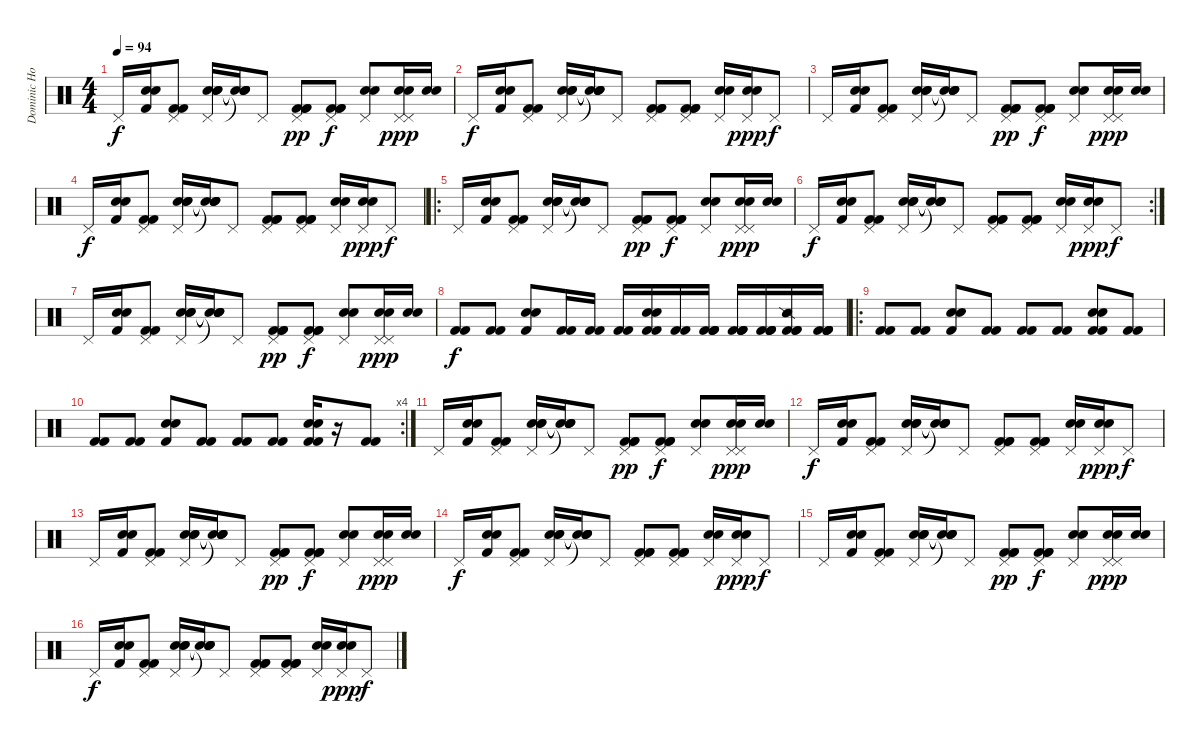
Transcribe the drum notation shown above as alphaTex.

\track ("Dominic Howard" "Dominic Ho") {instrument percussion}
\staff {score}
\articulation defaults
\ts (4 4)
\tempo 94
\clef neutral
\ks c "Pedal Hi-Hat (hit)".16{dy f}
("Snare (hit) 2" "Snare (hit) 2" "Kick (hit) 2").16 ("Pedal Hi-Hat (hit)" "Kick (hit) 2" "Kick (hit) 2").8 ("Pedal Hi-Hat (hit)" "Snare (hit) 2" "Snare (hit) 2" "Snare (hit) 2").16 ("Snare (hit)"{t} "Snare (hit)"{t} "Snare (hit)"{t} "Snare (hit)"{t}).16 "Pedal Hi-Hat (hit)".8 ("Pedal Hi-Hat (hit)" "Kick (hit) 2" "Kick (hit) 2" "Kick (hit) 2").8{dy pp} ("Pedal Hi-Hat (hit)" "Kick (hit) 2" "Kick (hit) 2" "Kick (hit) 2").8{dy f} ("Pedal Hi-Hat (hit)" "Snare (hit) 2" "Snare (hit) 2").8 ("Pedal Hi-Hat (hit)" "Pedal Hi-Hat (hit)" "Snare (hit) 2" "Snare (hit) 2").16{dy ppp} ("Snare (hit) 2" "Snare (hit) 2").16 |
"Pedal Hi-Hat (hit)".16{dy f} ("Snare (hit) 2" "Snare (hit) 2" "Kick (hit) 2").16 ("Pedal Hi-Hat (hit)" "Kick (hit) 2" "Kick (hit) 2").8 ("Pedal Hi-Hat (hit)" "Snare (hit) 2" "Snare (hit) 2" "Snare (hit) 2").16 ("Snare (hit)"{t} "Snare (hit)"{t} "Snare (hit)"{t} "Snare (hit)"{t}).16 "Pedal Hi-Hat (hit)".8 ("Pedal Hi-Hat (hit)" "Kick (hit) 2" "Kick (hit) 2" "Kick (hit) 2").8 ("Pedal Hi-Hat (hit)" "Kick (hit) 2" "Kick (hit) 2" "Kick (hit) 2").8 ("Pedal Hi-Hat (hit)" "Snare (hit) 2" "Snare (hit) 2").16 ("Pedal Hi-Hat (hit)" "Snare (hit) 2" "Snare (hit) 2").16{dy ppp} "Pedal Hi-Hat (hit)".8{dy f} |
"Pedal Hi-Hat (hit)".16 ("Snare (hit) 2" "Snare (hit) 2" "Kick (hit) 2").16 ("Pedal Hi-Hat (hit)" "Kick (hit) 2" "Kick (hit) 2").8 ("Pedal Hi-Hat (hit)" "Snare (hit) 2" "Snare (hit) 2" "Snare (hit) 2").16 ("Snare (hit)"{t} "Snare (hit)"{t} "Snare (hit)"{t} "Snare (hit)"{t}).16 "Pedal Hi-Hat (hit)".8 ("Pedal Hi-Hat (hit)" "Kick (hit) 2" "Kick (hit) 2" "Kick (hit) 2").8{dy pp} ("Pedal Hi-Hat (hit)" "Kick (hit) 2" "Kick (hit) 2" "Kick (hit) 2").8{dy f} ("Pedal Hi-Hat (hit)" "Snare (hit) 2" "Snare (hit) 2").8 ("Pedal Hi-Hat (hit)" "Pedal Hi-Hat (hit)" "Snare (hit) 2" "Snare (hit) 2").16{dy ppp} ("Snare (hit) 2" "Snare (hit) 2").16 |
"Pedal Hi-Hat (hit)".16{dy f} ("Snare (hit) 2" "Snare (hit) 2" "Kick (hit) 2").16 ("Pedal Hi-Hat (hit)" "Kick (hit) 2" "Kick (hit) 2").8 ("Pedal Hi-Hat (hit)" "Snare (hit) 2" "Snare (hit) 2" "Snare (hit) 2").16 ("Snare (hit)"{t} "Snare (hit)"{t} "Snare (hit)"{t} "Snare (hit)"{t}).16 "Pedal Hi-Hat (hit)".8 ("Pedal Hi-Hat (hit)" "Kick (hit) 2" "Kick (hit) 2" "Kick (hit) 2").8 ("Pedal Hi-Hat (hit)" "Kick (hit) 2" "Kick (hit) 2" "Kick (hit) 2").8 ("Pedal Hi-Hat (hit)" "Snare (hit) 2" "Snare (hit) 2").16 ("Pedal Hi-Hat (hit)" "Snare (hit) 2" "Snare (hit) 2").16{dy ppp} "Pedal Hi-Hat (hit)".8{dy f} |
\ro "Pedal Hi-Hat (hit)".16
("Snare (hit) 2" "Snare (hit) 2" "Kick (hit) 2").16 ("Pedal Hi-Hat (hit)" "Kick (hit) 2" "Kick (hit) 2").8 ("Pedal Hi-Hat (hit)" "Snare (hit) 2" "Snare (hit) 2" "Snare (hit) 2").16 ("Snare (hit)"{t} "Snare (hit)"{t} "Snare (hit)"{t} "Snare (hit)"{t}).16 "Pedal Hi-Hat (hit)".8 ("Pedal Hi-Hat (hit)" "Kick (hit) 2" "Kick (hit) 2" "Kick (hit) 2").8{dy pp} ("Pedal Hi-Hat (hit)" "Kick (hit) 2" "Kick (hit) 2" "Kick (hit) 2").8{dy f} ("Pedal Hi-Hat (hit)" "Snare (hit) 2" "Snare (hit) 2").8 ("Pedal Hi-Hat (hit)" "Pedal Hi-Hat (hit)" "Snare (hit) 2" "Snare (hit) 2").16{dy ppp} ("Snare (hit) 2" "Snare (hit) 2").16 |
\rc 2 "Pedal Hi-Hat (hit)".16{dy f}
("Snare (hit) 2" "Snare (hit) 2" "Kick (hit) 2").16 ("Pedal Hi-Hat (hit)" "Kick (hit) 2" "Kick (hit) 2").8 ("Pedal Hi-Hat (hit)" "Snare (hit) 2" "Snare (hit) 2" "Snare (hit) 2").16 ("Snare (hit)"{t} "Snare (hit)"{t} "Snare (hit)"{t} "Snare (hit)"{t}).16 "Pedal Hi-Hat (hit)".8 ("Pedal Hi-Hat (hit)" "Kick (hit) 2" "Kick (hit) 2" "Kick (hit) 2").8 ("Pedal Hi-Hat (hit)" "Kick (hit) 2" "Kick (hit) 2" "Kick (hit) 2").8 ("Pedal Hi-Hat (hit)" "Snare (hit) 2" "Snare (hit) 2").16 ("Pedal Hi-Hat (hit)" "Snare (hit) 2" "Snare (hit) 2").16{dy ppp} "Pedal Hi-Hat (hit)".8{dy f} |
"Pedal Hi-Hat (hit)".16 ("Snare (hit) 2" "Snare (hit) 2" "Kick (hit) 2").16 ("Pedal Hi-Hat (hit)" "Kick (hit) 2" "Kick (hit) 2").8 ("Pedal Hi-Hat (hit)" "Snare (hit) 2" "Snare (hit) 2" "Snare (hit) 2").16 ("Snare (hit)"{t} "Snare (hit)"{t} "Snare (hit)"{t} "Snare (hit)"{t}).16 "Pedal Hi-Hat (hit)".8 ("Pedal Hi-Hat (hit)" "Kick (hit) 2" "Kick (hit) 2" "Kick (hit) 2").8{dy pp} ("Pedal Hi-Hat (hit)" "Kick (hit) 2" "Kick (hit) 2" "Kick (hit) 2").8{dy f} ("Pedal Hi-Hat (hit)" "Snare (hit) 2" "Snare (hit) 2").8 ("Pedal Hi-Hat (hit)" "Pedal Hi-Hat (hit)" "Snare (hit) 2" "Snare (hit) 2").16{dy ppp} ("Snare (hit) 2" "Snare (hit) 2").16 |
("Kick (hit) 2" "Kick (hit) 2").8{dy f} ("Kick (hit) 2" "Kick (hit) 2").8 ("Snare (hit) 2" "Snare (hit) 2" "Kick (hit) 2").8 ("Kick (hit) 2" "Kick (hit) 2").16 ("Kick (hit) 2" "Kick (hit) 2").16 ("Kick (hit) 2" "Kick (hit) 2").16 ("Snare (hit) 2" "Snare (hit) 2" "Kick (hit) 2" "Kick (hit) 2").16 ("Kick (hit) 2" "Kick (hit) 2").16 ("Kick (hit) 2" "Kick (hit) 2" "Kick (hit) 2" "Kick (hit) 2").16 ("Kick (hit) 2" "Kick (hit) 2" "Kick (hit) 2" "Kick (hit) 2").16 ("Kick (hit) 2" "Kick (hit) 2" "Kick (hit) 2" "Kick (hit) 2").16 ("Snare (side stick) 2" "Kick (hit) 2" "Kick (hit) 2" "Kick (hit) 2").16 ("Kick (hit) 2" "Kick (hit) 2" "Kick (hit) 2" "Kick (hit) 2").16 |
\ro
("Kick (hit) 2" "Kick (hit) 2").8 ("Kick (hit) 2" "Kick (hit) 2").8 ("Snare (hit) 2" "Snare (hit) 2" "Kick (hit) 2").8 ("Kick (hit) 2" "Kick (hit) 2").8 ("Kick (hit) 2" "Kick (hit) 2").8 ("Kick (hit) 2" "Kick (hit) 2").8 ("Snare (hit) 2" "Snare (hit) 2" "Kick (hit) 2" "Kick (hit) 2").8 ("Kick (hit) 2" "Kick (hit) 2").8 |
\rc 4
("Kick (hit) 2" "Kick (hit) 2").8 ("Kick (hit) 2" "Kick (hit) 2").8 ("Snare (hit) 2" "Snare (hit) 2" "Kick (hit) 2").8 ("Kick (hit) 2" "Kick (hit) 2").8 ("Kick (hit) 2" "Kick (hit) 2").8 ("Kick (hit) 2" "Kick (hit) 2").8 ("Snare (hit) 2" "Snare (hit) 2" "Kick (hit) 2" "Kick (hit) 2").16 r.16 ("Kick (hit) 2" "Kick (hit) 2").8 |
"Pedal Hi-Hat (hit)".16 ("Snare (hit) 2" "Snare (hit) 2" "Kick (hit) 2").16 ("Pedal Hi-Hat (hit)" "Kick (hit) 2" "Kick (hit) 2").8 ("Pedal Hi-Hat (hit)" "Snare (hit) 2" "Snare (hit) 2" "Snare (hit) 2").16 ("Snare (hit)"{t} "Snare (hit)"{t} "Snare (hit)"{t} "Snare (hit)"{t}).16 "Pedal Hi-Hat (hit)".8 ("Pedal Hi-Hat (hit)" "Kick (hit) 2" "Kick (hit) 2" "Kick (hit) 2").8{dy pp} ("Pedal Hi-Hat (hit)" "Kick (hit) 2" "Kick (hit) 2" "Kick (hit) 2").8{dy f} ("Pedal Hi-Hat (hit)" "Snare (hit) 2" "Snare (hit) 2").8 ("Pedal Hi-Hat (hit)" "Pedal Hi-Hat (hit)" "Snare (hit) 2" "Snare (hit) 2").16{dy ppp} ("Snare (hit) 2" "Snare (hit) 2").16 |
"Pedal Hi-Hat (hit)".16{dy f} ("Snare (hit) 2" "Snare (hit) 2" "Kick (hit) 2").16 ("Pedal Hi-Hat (hit)" "Kick (hit) 2" "Kick (hit) 2").8 ("Pedal Hi-Hat (hit)" "Snare (hit) 2" "Snare (hit) 2" "Snare (hit) 2").16 ("Snare (hit)"{t} "Snare (hit)"{t} "Snare (hit)"{t} "Snare (hit)"{t}).16 "Pedal Hi-Hat (hit)".8 ("Pedal Hi-Hat (hit)" "Kick (hit) 2" "Kick (hit) 2" "Kick (hit) 2").8 ("Pedal Hi-Hat (hit)" "Kick (hit) 2" "Kick (hit) 2" "Kick (hit) 2").8 ("Pedal Hi-Hat (hit)" "Snare (hit) 2" "Snare (hit) 2").16 ("Pedal Hi-Hat (hit)" "Snare (hit) 2" "Snare (hit) 2").16{dy ppp} "Pedal Hi-Hat (hit)".8{dy f} |
"Pedal Hi-Hat (hit)".16 ("Snare (hit) 2" "Snare (hit) 2" "Kick (hit) 2").16 ("Pedal Hi-Hat (hit)" "Kick (hit) 2" "Kick (hit) 2").8 ("Pedal Hi-Hat (hit)" "Snare (hit) 2" "Snare (hit) 2" "Snare (hit) 2").16 ("Snare (hit)"{t} "Snare (hit)"{t} "Snare (hit)"{t} "Snare (hit)"{t}).16 "Pedal Hi-Hat (hit)".8 ("Pedal Hi-Hat (hit)" "Kick (hit) 2" "Kick (hit) 2" "Kick (hit) 2").8{dy pp} ("Pedal Hi-Hat (hit)" "Kick (hit) 2" "Kick (hit) 2" "Kick (hit) 2").8{dy f} ("Pedal Hi-Hat (hit)" "Snare (hit) 2" "Snare (hit) 2").8 ("Pedal Hi-Hat (hit)" "Pedal Hi-Hat (hit)" "Snare (hit) 2" "Snare (hit) 2").16{dy ppp} ("Snare (hit) 2" "Snare (hit) 2").16 |
"Pedal Hi-Hat (hit)".16{dy f} ("Snare (hit) 2" "Snare (hit) 2" "Kick (hit) 2").16 ("Pedal Hi-Hat (hit)" "Kick (hit) 2" "Kick (hit) 2").8 ("Pedal Hi-Hat (hit)" "Snare (hit) 2" "Snare (hit) 2" "Snare (hit) 2").16 ("Snare (hit)"{t} "Snare (hit)"{t} "Snare (hit)"{t} "Snare (hit)"{t}).16 "Pedal Hi-Hat (hit)".8 ("Pedal Hi-Hat (hit)" "Kick (hit) 2" "Kick (hit) 2" "Kick (hit) 2").8 ("Pedal Hi-Hat (hit)" "Kick (hit) 2" "Kick (hit) 2" "Kick (hit) 2").8 ("Pedal Hi-Hat (hit)" "Snare (hit) 2" "Snare (hit) 2").16 ("Pedal Hi-Hat (hit)" "Snare (hit) 2" "Snare (hit) 2").16{dy ppp} "Pedal Hi-Hat (hit)".8{dy f} |
"Pedal Hi-Hat (hit)".16 ("Snare (hit) 2" "Snare (hit) 2" "Kick (hit) 2").16 ("Pedal Hi-Hat (hit)" "Kick (hit) 2" "Kick (hit) 2").8 ("Pedal Hi-Hat (hit)" "Snare (hit) 2" "Snare (hit) 2" "Snare (hit) 2").16 ("Snare (hit)"{t} "Snare (hit)"{t} "Snare (hit)"{t} "Snare (hit)"{t}).16 "Pedal Hi-Hat (hit)".8 ("Pedal Hi-Hat (hit)" "Kick (hit) 2" "Kick (hit) 2" "Kick (hit) 2").8{dy pp} ("Pedal Hi-Hat (hit)" "Kick (hit) 2" "Kick (hit) 2" "Kick (hit) 2").8{dy f} ("Pedal Hi-Hat (hit)" "Snare (hit) 2" "Snare (hit) 2").8 ("Pedal Hi-Hat (hit)" "Pedal Hi-Hat (hit)" "Snare (hit) 2" "Snare (hit) 2").16{dy ppp} ("Snare (hit) 2" "Snare (hit) 2").16 |
"Pedal Hi-Hat (hit)".16{dy f} ("Snare (hit) 2" "Snare (hit) 2" "Kick (hit) 2").16 ("Pedal Hi-Hat (hit)" "Kick (hit) 2" "Kick (hit) 2").8 ("Pedal Hi-Hat (hit)" "Snare (hit) 2" "Snare (hit) 2" "Snare (hit) 2").16 ("Snare (hit)"{t} "Snare (hit)"{t} "Snare (hit)"{t} "Snare (hit)"{t}).16 "Pedal Hi-Hat (hit)".8 ("Pedal Hi-Hat (hit)" "Kick (hit) 2" "Kick (hit) 2" "Kick (hit) 2").8 ("Pedal Hi-Hat (hit)" "Kick (hit) 2" "Kick (hit) 2" "Kick (hit) 2").8 ("Pedal Hi-Hat (hit)" "Snare (hit) 2" "Snare (hit) 2").16 ("Pedal Hi-Hat (hit)" "Snare (hit) 2" "Snare (hit) 2").16{dy ppp} "Pedal Hi-Hat (hit)".8{dy f}
